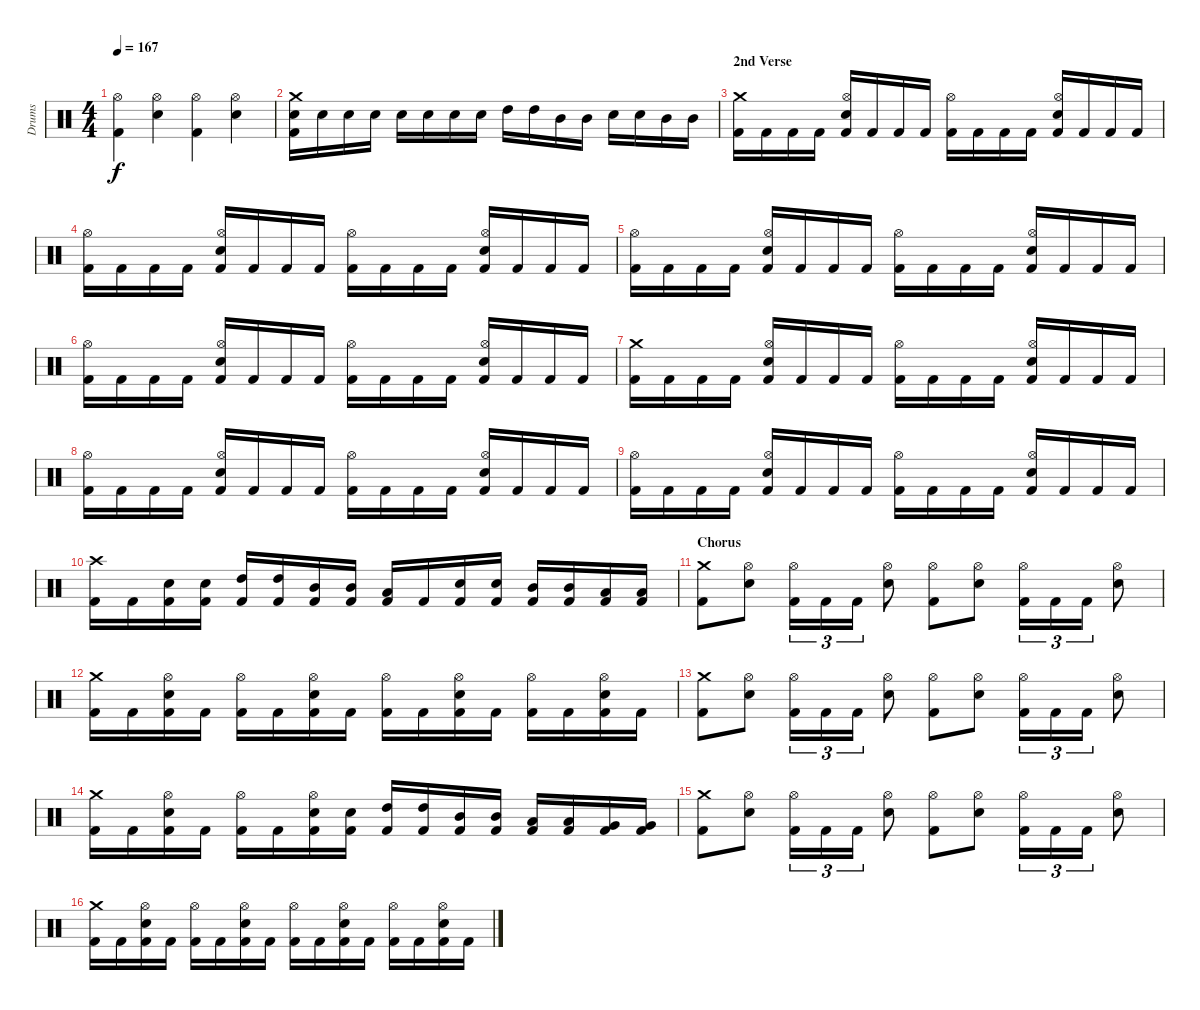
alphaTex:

\track ("Drums" "Drums") {instrument percussion}
\staff {score}
\articulation defaults
\ts (4 4)
\tempo 167
\clef neutral
\ks c
("Kick (hit) 2" "Hi-Hat (open)").4{dy f} ("Electric Snare (hit)" "Hi-Hat (open)").4 ("Kick (hit) 2" "Hi-Hat (open)").4 ("Electric Snare (hit)" "Hi-Hat (open)").4 |
("Kick (hit) 2" "Electric Snare (hit)" "Crash medium (hit)").16 "Electric Snare (hit)".16 "Electric Snare (hit)".16 "Electric Snare (hit)".16 "Electric Snare (hit)".16 "Electric Snare (hit)".16 "Electric Snare (hit)".16 "Electric Snare (hit)".16 "High Tom (hit)".16 "High Tom (hit)".16 "Mid Tom (hit)".16 "Mid Tom (hit)".16 "Electric Snare (hit)".16 "Electric Snare (hit)".16 "Mid Tom (hit)".16 "Mid Tom (hit)".16 |
\section ("" "2nd Verse")
("Kick (hit) 2" "Crash medium (hit)").16 "Kick (hit) 2".16 "Kick (hit) 2".16 "Kick (hit) 2".16 ("Kick (hit) 2" "Electric Snare (hit)" "Hi-Hat (open)").16 "Kick (hit) 2".16 "Kick (hit) 2".16 "Kick (hit) 2".16 ("Kick (hit) 2" "Hi-Hat (open)").16 "Kick (hit) 2".16 "Kick (hit) 2".16 "Kick (hit) 2".16 ("Kick (hit) 2" "Electric Snare (hit)" "Hi-Hat (open)").16 "Kick (hit) 2".16 "Kick (hit) 2".16 "Kick (hit) 2".16 |
("Kick (hit) 2" "Hi-Hat (open)").16 "Kick (hit) 2".16 "Kick (hit) 2".16 "Kick (hit) 2".16 ("Kick (hit) 2" "Electric Snare (hit)" "Hi-Hat (open)").16 "Kick (hit) 2".16 "Kick (hit) 2".16 "Kick (hit) 2".16 ("Kick (hit) 2" "Hi-Hat (open)").16 "Kick (hit) 2".16 "Kick (hit) 2".16 "Kick (hit) 2".16 ("Kick (hit) 2" "Electric Snare (hit)" "Hi-Hat (open)").16 "Kick (hit) 2".16 "Kick (hit) 2".16 "Kick (hit) 2".16 |
("Kick (hit) 2" "Hi-Hat (open)").16 "Kick (hit) 2".16 "Kick (hit) 2".16 "Kick (hit) 2".16 ("Kick (hit) 2" "Electric Snare (hit)" "Hi-Hat (open)").16 "Kick (hit) 2".16 "Kick (hit) 2".16 "Kick (hit) 2".16 ("Kick (hit) 2" "Hi-Hat (open)").16 "Kick (hit) 2".16 "Kick (hit) 2".16 "Kick (hit) 2".16 ("Kick (hit) 2" "Electric Snare (hit)" "Hi-Hat (open)").16 "Kick (hit) 2".16 "Kick (hit) 2".16 "Kick (hit) 2".16 |
("Kick (hit) 2" "Hi-Hat (open)").16 "Kick (hit) 2".16 "Kick (hit) 2".16 "Kick (hit) 2".16 ("Kick (hit) 2" "Electric Snare (hit)" "Hi-Hat (open)").16 "Kick (hit) 2".16 "Kick (hit) 2".16 "Kick (hit) 2".16 ("Kick (hit) 2" "Hi-Hat (open)").16 "Kick (hit) 2".16 "Kick (hit) 2".16 "Kick (hit) 2".16 ("Kick (hit) 2" "Electric Snare (hit)" "Hi-Hat (open)").16 "Kick (hit) 2".16 "Kick (hit) 2".16 "Kick (hit) 2".16 |
("Kick (hit) 2" "Crash medium (hit)").16 "Kick (hit) 2".16 "Kick (hit) 2".16 "Kick (hit) 2".16 ("Kick (hit) 2" "Electric Snare (hit)" "Hi-Hat (open)").16 "Kick (hit) 2".16 "Kick (hit) 2".16 "Kick (hit) 2".16 ("Kick (hit) 2" "Hi-Hat (open)").16 "Kick (hit) 2".16 "Kick (hit) 2".16 "Kick (hit) 2".16 ("Kick (hit) 2" "Electric Snare (hit)" "Hi-Hat (open)").16 "Kick (hit) 2".16 "Kick (hit) 2".16 "Kick (hit) 2".16 |
("Kick (hit) 2" "Hi-Hat (open)").16 "Kick (hit) 2".16 "Kick (hit) 2".16 "Kick (hit) 2".16 ("Kick (hit) 2" "Electric Snare (hit)" "Hi-Hat (open)").16 "Kick (hit) 2".16 "Kick (hit) 2".16 "Kick (hit) 2".16 ("Kick (hit) 2" "Hi-Hat (open)").16 "Kick (hit) 2".16 "Kick (hit) 2".16 "Kick (hit) 2".16 ("Kick (hit) 2" "Electric Snare (hit)" "Hi-Hat (open)").16 "Kick (hit) 2".16 "Kick (hit) 2".16 "Kick (hit) 2".16 |
("Kick (hit) 2" "Hi-Hat (open)").16 "Kick (hit) 2".16 "Kick (hit) 2".16 "Kick (hit) 2".16 ("Kick (hit) 2" "Electric Snare (hit)" "Hi-Hat (open)").16 "Kick (hit) 2".16 "Kick (hit) 2".16 "Kick (hit) 2".16 ("Kick (hit) 2" "Hi-Hat (open)").16 "Kick (hit) 2".16 "Kick (hit) 2".16 "Kick (hit) 2".16 ("Kick (hit) 2" "Electric Snare (hit)" "Hi-Hat (open)").16 "Kick (hit) 2".16 "Kick (hit) 2".16 "Kick (hit) 2".16 |
("Kick (hit) 2" "Crash high (hit)").16 "Kick (hit) 2".16 ("Kick (hit) 2" "Electric Snare (hit)").16 ("Kick (hit) 2" "Electric Snare (hit)").16 ("Kick (hit) 2" "High Tom (hit)").16 ("Kick (hit) 2" "High Tom (hit)").16 ("Kick (hit) 2" "Mid Tom (hit)").16 ("Kick (hit) 2" "Mid Tom (hit)").16 ("Kick (hit) 2" "Low Tom (hit)").16 "Kick (hit) 2".16 ("Kick (hit) 2" "Electric Snare (hit)").16 ("Kick (hit) 2" "Electric Snare (hit)").16 ("Kick (hit) 2" "Mid Tom (hit)").16 ("Kick (hit) 2" "Mid Tom (hit)").16 ("Kick (hit) 2" "Low Tom (hit)").16 ("Kick (hit) 2" "Low Tom (hit)").16 |
\section ("" "Chorus")
("Kick (hit) 2" "Crash medium (hit)").8 ("Electric Snare (hit)" "Hi-Hat (open)").8 ("Kick (hit) 2" "Hi-Hat (open)").16{tu (3 2)} "Kick (hit) 2".16{tu (3 2)} "Kick (hit) 2".16{tu (3 2)} ("Electric Snare (hit)" "Hi-Hat (open)").8 ("Kick (hit) 2" "Hi-Hat (open)").8 ("Electric Snare (hit)" "Hi-Hat (open)").8 ("Kick (hit) 2" "Hi-Hat (open)").16{tu (3 2)} "Kick (hit) 2".16{tu (3 2)} "Kick (hit) 2".16{tu (3 2)} ("Electric Snare (hit)" "Hi-Hat (open)").8 |
("Kick (hit) 2" "Crash medium (hit)").16 "Kick (hit) 2".16 ("Kick (hit) 2" "Electric Snare (hit)" "Hi-Hat (open)").16 "Kick (hit) 2".16 ("Kick (hit) 2" "Hi-Hat (open)").16 "Kick (hit) 2".16 ("Kick (hit) 2" "Electric Snare (hit)" "Hi-Hat (open)").16 "Kick (hit) 2".16 ("Kick (hit) 2" "Hi-Hat (open)").16 "Kick (hit) 2".16 ("Kick (hit) 2" "Electric Snare (hit)" "Hi-Hat (open)").16 "Kick (hit) 2".16 ("Kick (hit) 2" "Hi-Hat (open)").16 "Kick (hit) 2".16 ("Kick (hit) 2" "Electric Snare (hit)" "Hi-Hat (open)").16 "Kick (hit) 2".16 |
("Kick (hit) 2" "Crash medium (hit)").8 ("Electric Snare (hit)" "Hi-Hat (open)").8 ("Kick (hit) 2" "Hi-Hat (open)").16{tu (3 2)} "Kick (hit) 2".16{tu (3 2)} "Kick (hit) 2".16{tu (3 2)} ("Electric Snare (hit)" "Hi-Hat (open)").8 ("Kick (hit) 2" "Hi-Hat (open)").8 ("Electric Snare (hit)" "Hi-Hat (open)").8 ("Kick (hit) 2" "Hi-Hat (open)").16{tu (3 2)} "Kick (hit) 2".16{tu (3 2)} "Kick (hit) 2".16{tu (3 2)} ("Electric Snare (hit)" "Hi-Hat (open)").8 |
("Kick (hit) 2" "Crash medium (hit)").16 "Kick (hit) 2".16 ("Kick (hit) 2" "Electric Snare (hit)" "Hi-Hat (open)").16 "Kick (hit) 2".16 ("Kick (hit) 2" "Hi-Hat (open)").16 "Kick (hit) 2".16 ("Kick (hit) 2" "Electric Snare (hit)" "Hi-Hat (open)").16 ("Kick (hit) 2" "Electric Snare (hit)").16 ("Kick (hit) 2" "High Tom (hit)").16 ("Kick (hit) 2" "High Tom (hit)").16 ("Kick (hit) 2" "Mid Tom (hit)").16 ("Kick (hit) 2" "Mid Tom (hit)").16 ("Kick (hit) 2" "Low Tom (hit)").16 ("Kick (hit) 2" "Low Tom (hit)").16 ("Kick (hit) 2" "Very Low Tom (hit)").16 ("Kick (hit) 2" "Very Low Tom (hit)").16 |
("Kick (hit) 2" "Crash medium (hit)").8 ("Electric Snare (hit)" "Hi-Hat (open)").8 ("Kick (hit) 2" "Hi-Hat (open)").16{tu (3 2)} "Kick (hit) 2".16{tu (3 2)} "Kick (hit) 2".16{tu (3 2)} ("Electric Snare (hit)" "Hi-Hat (open)").8 ("Kick (hit) 2" "Hi-Hat (open)").8 ("Electric Snare (hit)" "Hi-Hat (open)").8 ("Kick (hit) 2" "Hi-Hat (open)").16{tu (3 2)} "Kick (hit) 2".16{tu (3 2)} "Kick (hit) 2".16{tu (3 2)} ("Electric Snare (hit)" "Hi-Hat (open)").8 |
("Kick (hit) 2" "Crash medium (hit)").16 "Kick (hit) 2".16 ("Kick (hit) 2" "Electric Snare (hit)" "Hi-Hat (open)").16 "Kick (hit) 2".16 ("Kick (hit) 2" "Hi-Hat (open)").16 "Kick (hit) 2".16 ("Kick (hit) 2" "Electric Snare (hit)" "Hi-Hat (open)").16 "Kick (hit) 2".16 ("Kick (hit) 2" "Hi-Hat (open)").16 "Kick (hit) 2".16 ("Kick (hit) 2" "Electric Snare (hit)" "Hi-Hat (open)").16 "Kick (hit) 2".16 ("Kick (hit) 2" "Hi-Hat (open)").16 "Kick (hit) 2".16 ("Kick (hit) 2" "Electric Snare (hit)" "Hi-Hat (open)").16 "Kick (hit) 2".16
